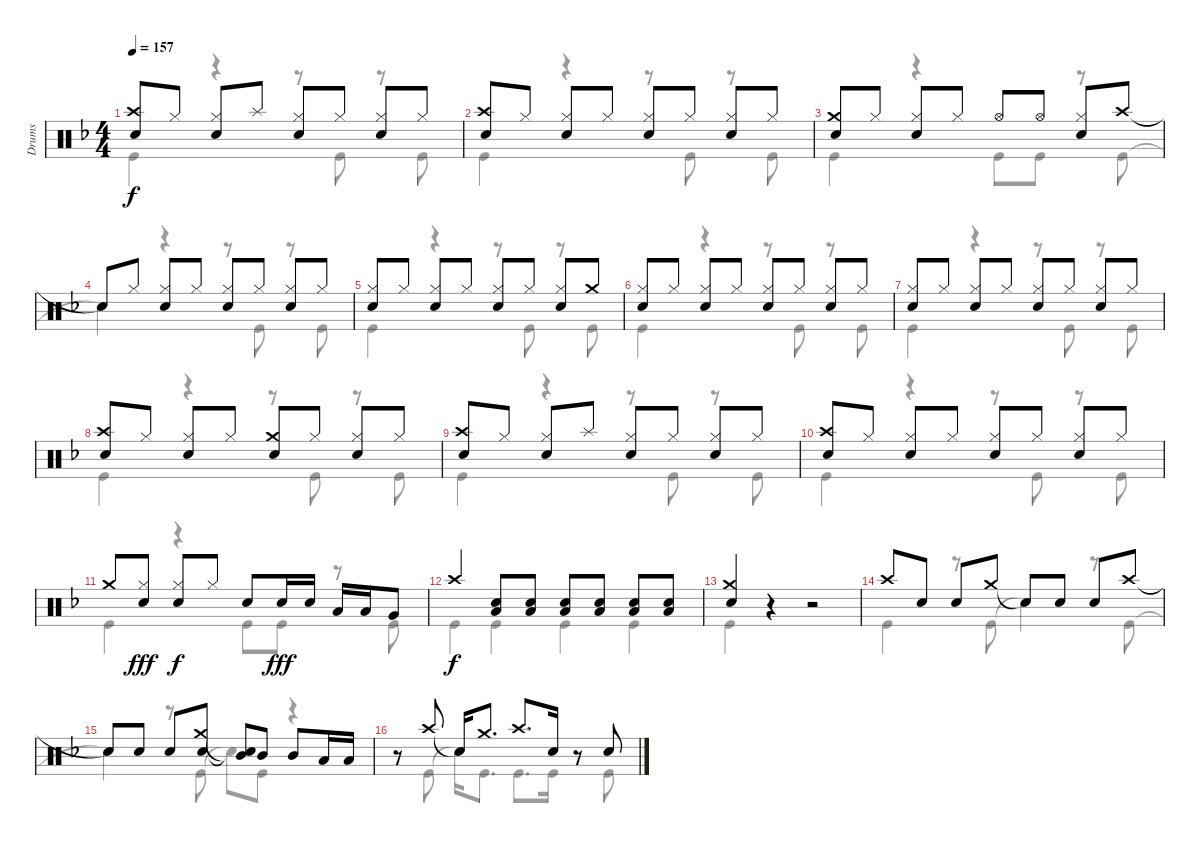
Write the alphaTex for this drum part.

\track ("Drums" "Drums") {instrument percussion}
\staff {score}
\articulation defaults
\voice
\ts (4 4)
\tempo 157
\clef neutral
\ks f
("Crash high (hit)" "Snare (hit) 2").8{dy f} "Hi-Hat (closed)".8 ("Hi-Hat (closed)" "Snare (hit) 2").8 "Splash (hit)".8 ("Hi-Hat (closed)" "Snare (hit) 2").8 "Hi-Hat (closed)".8 ("Hi-Hat (closed)" "Snare (hit) 2").8 "Hi-Hat (closed)".8 |
("Crash high (hit)" "Snare (hit) 2").8 "Hi-Hat (closed)".8 ("Hi-Hat (closed)" "Snare (hit) 2").8 "Hi-Hat (closed)".8 ("Hi-Hat (closed)" "Snare (hit) 2").8 "Hi-Hat (closed)".8 ("Hi-Hat (closed)" "Snare (hit) 2").8 "Hi-Hat (closed)".8 |
("Crash medium (hit)" "Snare (hit) 2").8 "Hi-Hat (closed)".8 ("Hi-Hat (closed)" "Snare (hit) 2").8 "Hi-Hat (closed)".8 "Hi-Hat (open)".8 "Hi-Hat (open)".8 ("Hi-Hat (closed)" "Snare (hit) 2").8 "Crash high (hit)".8 |
"Snare (hit)"{t}.8 "Hi-Hat (closed)".8 ("Hi-Hat (closed)" "Snare (hit) 2").8 "Hi-Hat (closed)".8 ("Hi-Hat (closed)" "Snare (hit) 2").8 "Hi-Hat (closed)".8 ("Hi-Hat (closed)" "Snare (hit) 2").8 "Hi-Hat (closed)".8 |
("Hi-Hat (closed)" "Snare (hit) 2").8 "Hi-Hat (closed)".8 ("Hi-Hat (closed)" "Snare (hit) 2").8 "Hi-Hat (closed)".8 ("Hi-Hat (closed)" "Snare (hit) 2").8 "Hi-Hat (closed)".8 ("Hi-Hat (closed)" "Snare (hit) 2").8 "Crash medium (hit)".8 |
("Hi-Hat (closed)" "Snare (hit) 2").8 "Hi-Hat (closed)".8 ("Hi-Hat (closed)" "Snare (hit) 2").8 "Hi-Hat (closed)".8 ("Hi-Hat (closed)" "Snare (hit) 2").8 "Hi-Hat (closed)".8 ("Hi-Hat (closed)" "Snare (hit) 2").8 "Hi-Hat (closed)".8 |
("Hi-Hat (closed)" "Snare (hit) 2").8 "Hi-Hat (closed)".8 ("Hi-Hat (closed)" "Snare (hit) 2").8 "Hi-Hat (closed)".8 ("Hi-Hat (closed)" "Snare (hit) 2").8 "Hi-Hat (closed)".8 ("Hi-Hat (closed)" "Snare (hit) 2").8 "Hi-Hat (closed)".8 |
("Crash high (hit)" "Snare (hit) 2").8 "Hi-Hat (closed)".8 ("Hi-Hat (closed)" "Snare (hit) 2").8 "Hi-Hat (closed)".8 ("Crash medium (hit)" "Snare (hit) 2").8 "Hi-Hat (closed)".8 ("Hi-Hat (closed)" "Snare (hit) 2").8 "Hi-Hat (closed)".8 |
("Crash high (hit)" "Snare (hit) 2").8 "Hi-Hat (closed)".8 ("Hi-Hat (closed)" "Snare (hit) 2").8 "Splash (hit)".8 ("Hi-Hat (closed)" "Snare (hit) 2").8 "Hi-Hat (closed)".8 ("Hi-Hat (closed)" "Snare (hit) 2").8 "Hi-Hat (closed)".8 |
("Crash high (hit)" "Snare (hit) 2").8 "Hi-Hat (closed)".8 ("Hi-Hat (closed)" "Snare (hit) 2").8 "Hi-Hat (closed)".8 ("Hi-Hat (closed)" "Snare (hit) 2").8 "Hi-Hat (closed)".8 ("Hi-Hat (closed)" "Snare (hit) 2").8 "Hi-Hat (closed)".8 |
"Crash medium (hit)".8 ("Hi-Hat (closed)" "Snare (hit) 2").8{dy fff} ("Hi-Hat (closed)" "Snare (hit) 2").8{dy f} "Hi-Hat (closed)".8 "Snare (hit) 2".8 "Snare (hit) 2".16{dy fff} "Snare (hit) 2".16 "Low Tom (hit)".16 "Low Tom (hit)".16 "Very Low Tom (hit)".8 |
"Crash high (hit)".4{dy f} ("Snare (hit) 2" "Low Tom (hit)").8 ("Snare (hit) 2" "Low Tom (hit)").8 ("Snare (hit) 2" "Low Tom (hit)").8 ("Snare (hit) 2" "Low Tom (hit)").8 ("Snare (hit) 2" "Low Tom (hit)").8 ("Snare (hit) 2" "Low Tom (hit)").8 |
("Crash medium (hit)" "Snare (hit) 2").4 r.4 r.2 |
"Crash high (hit)".8 "Snare (hit) 2".8 "Snare (hit) 2".8 "Crash medium (hit)".8 "Snare (hit)"{t}.8 "Snare (hit) 2".8 "Snare (hit) 2".8 "Crash high (hit)".8 |
"Snare (hit)"{t}.8 "Snare (hit) 2".8 "Snare (hit) 2".8 ("Crash medium (hit)" "Snare (hit) 2").8 ("Mid Tom (hit)"{t} "Snare (hit)"{t}).8 "Mid Tom (hit)".8 "Mid Tom (hit)".8 "Low Tom (hit)".16 "Low Tom (hit)".16 |
r.8 "Crash high (hit)".8 "Snare (hit)"{t}.16 "Crash medium (hit)".8{d} "Crash high (hit)".8{d} "Snare (hit) 2".16 r.8 "Snare (hit) 2".8
\voice
\clef neutral
\ottava regular
\simile none
\ks f "Kick (hit)".4{dy f}
r.4 r.8 "Kick (hit)".8 r.8 "Kick (hit)".8 |
"Kick (hit)".4 r.4 r.8 "Kick (hit)".8 r.8 "Kick (hit)".8 |
"Kick (hit)".4 r.4 "Kick (hit)".8 "Kick (hit)".8 r.8 "Kick (hit)".8 |
"Snare (hit)"{t}.4 r.4 r.8 "Kick (hit)".8 r.8 "Kick (hit)".8 |
"Kick (hit)".4 r.4 r.8 "Kick (hit)".8 r.8 "Kick (hit)".8 |
"Kick (hit)".4 r.4 r.8 "Kick (hit)".8 r.8 "Kick (hit)".8 |
"Kick (hit)".4 r.4 r.8 "Kick (hit)".8 r.8 "Kick (hit)".8 |
"Kick (hit)".4 r.4 r.8 "Kick (hit)".8 r.8 "Kick (hit)".8 |
"Kick (hit)".4 r.4 r.8 "Kick (hit)".8 r.8 "Kick (hit)".8 |
"Kick (hit)".4 r.4 r.8 "Kick (hit)".8 r.8 "Kick (hit)".8 |
"Kick (hit)".4 r.4 "Kick (hit)".8 "Kick (hit)".8 r.8 "Kick (hit)".8 |
"Kick (hit)".4 "Kick (hit)".4 "Kick (hit)".4 "Kick (hit)".4 |
"Kick (hit)".4 r.4 r.2 |
"Kick (hit)".4 r.8 "Kick (hit)".8 "Snare (hit)"{t}.4 r.8 "Kick (hit)".8 |
"Snare (hit)"{t}.4 r.8 "Kick (hit)".8 "Snare (hit)"{t}.8 "Kick (hit)".8 r.4 |
r.8 "Kick (hit)".8 "Snare (hit)"{t}.16 "Kick (hit)".8{d} "Kick (hit)".8{d} "Kick (hit)".16 r.8 "Kick (hit)".8
